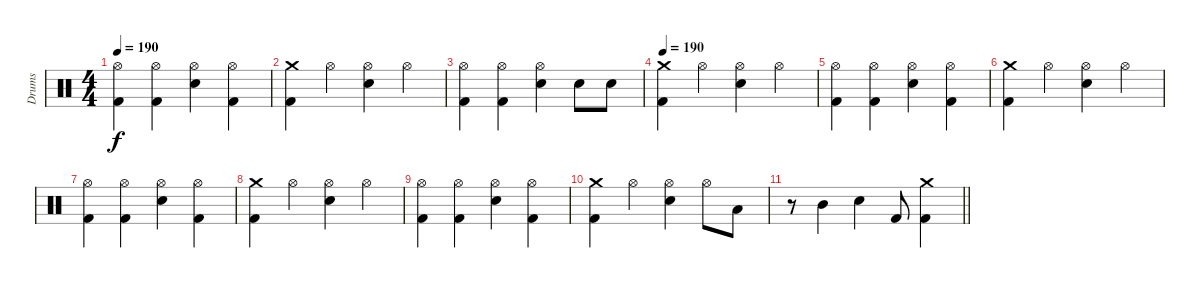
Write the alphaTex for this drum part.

\track ("Drums" "Drums") {instrument percussion}
\staff {score}
\articulation defaults
\ts (4 4)
\tempo 190
\clef neutral
\ks c
("Hi-Hat (open)" "Kick (hit) 2").4{dy f} ("Hi-Hat (open)" "Kick (hit) 2").4 ("Hi-Hat (open)" "Electric Snare (hit)").4 ("Hi-Hat (open)" "Kick (hit) 2").4 |
("Crash medium (hit)" "Kick (hit) 2").4 "Hi-Hat (open)".4 ("Hi-Hat (open)" "Electric Snare (hit)").4 "Hi-Hat (open)".4 |
("Hi-Hat (open)" "Kick (hit) 2").4 ("Hi-Hat (open)" "Kick (hit) 2").4 ("Hi-Hat (open)" "Electric Snare (hit)").4 "Electric Snare (hit)".8 "Electric Snare (hit)".8 |
\tempo 190
("Crash medium (hit)" "Kick (hit) 2").4 "Hi-Hat (open)".4 ("Hi-Hat (open)" "Electric Snare (hit)").4 "Hi-Hat (open)".4 |
("Hi-Hat (open)" "Kick (hit) 2").4 ("Hi-Hat (open)" "Kick (hit) 2").4 ("Hi-Hat (open)" "Electric Snare (hit)").4 ("Hi-Hat (open)" "Kick (hit) 2").4 |
("Crash medium (hit)" "Kick (hit) 2").4 "Hi-Hat (open)".4 ("Hi-Hat (open)" "Electric Snare (hit)").4 "Hi-Hat (open)".4 |
("Hi-Hat (open)" "Kick (hit) 2").4 ("Hi-Hat (open)" "Kick (hit) 2").4 ("Hi-Hat (open)" "Electric Snare (hit)").4 ("Hi-Hat (open)" "Kick (hit) 2").4 |
("Crash medium (hit)" "Kick (hit) 2").4 "Hi-Hat (open)".4 ("Hi-Hat (open)" "Electric Snare (hit)").4 "Hi-Hat (open)".4 |
("Hi-Hat (open)" "Kick (hit) 2").4 ("Hi-Hat (open)" "Kick (hit) 2").4 ("Hi-Hat (open)" "Electric Snare (hit)").4 ("Hi-Hat (open)" "Kick (hit) 2").4 |
("Crash medium (hit)" "Kick (hit) 2").4 "Hi-Hat (open)".4 ("Hi-Hat (open)" "Electric Snare (hit)").4 "Hi-Hat (open)".8 "Low Tom (hit)".8 |
\barLineRight lightlight
r.8 "Mid Tom (hit)".4 "Electric Snare (hit)".4 "Kick (hit) 2".8 ("Crash medium (hit)" "Kick (hit) 2").4
